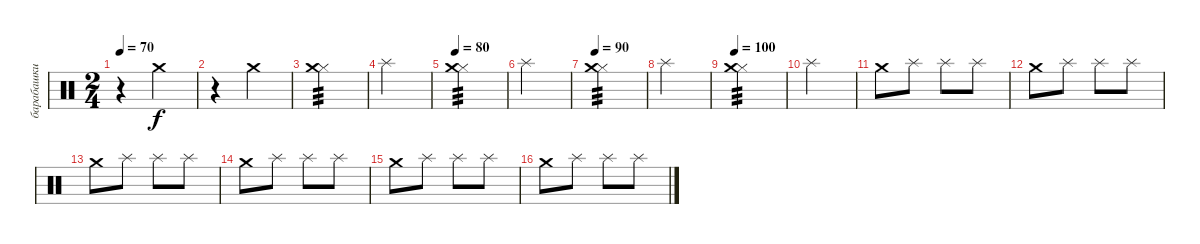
\track ("барабашки high" "барабашки ") {instrument percussion}
\staff {score}
\articulation defaults
\ts (2 4)
\tempo 70
\clef neutral
\ks c
r.4{dy f} "Crash medium (hit)".4 |
r.4 "Crash medium (hit)".4 |
("Hi-Hat (closed)" "Crash medium (hit)").2{tp 3} |
"Splash (hit)".2 |
\tempo 80
("Hi-Hat (closed)" "Crash medium (hit)").2{tp 3} |
"Splash (hit)".2 |
\tempo 90
("Hi-Hat (closed)" "Crash medium (hit)").2{tp 3} |
"Splash (hit)".2 |
\tempo 100
("Hi-Hat (closed)" "Crash medium (hit)").2{tp 3} |
"Splash (hit)".2 |
"Crash medium (hit)".8 "Splash (hit)".8 "Splash (hit)".8 "Splash (hit)".8 |
"Crash medium (hit)".8 "Splash (hit)".8 "Splash (hit)".8 "Splash (hit)".8 |
"Crash medium (hit)".8 "Splash (hit)".8 "Splash (hit)".8 "Splash (hit)".8 |
"Crash medium (hit)".8 "Splash (hit)".8 "Splash (hit)".8 "Splash (hit)".8 |
"Crash medium (hit)".8 "Splash (hit)".8 "Splash (hit)".8 "Splash (hit)".8 |
"Crash medium (hit)".8 "Splash (hit)".8 "Splash (hit)".8 "Splash (hit)".8
